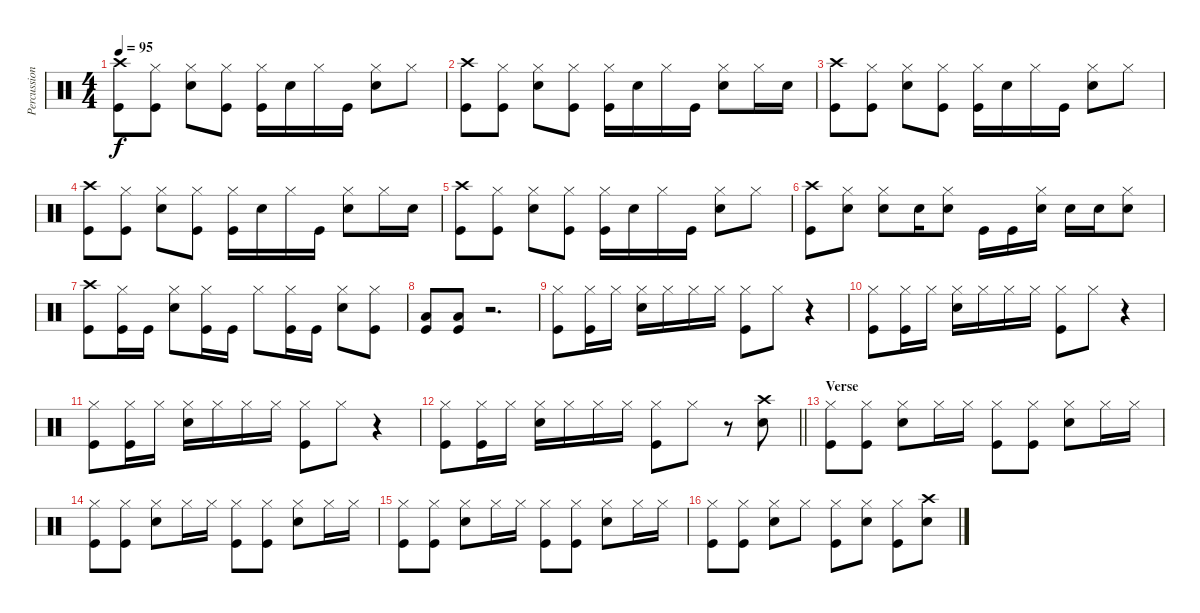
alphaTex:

\track ("Percussion" "Percussion") {instrument percussion}
\staff {score}
\articulation defaults
\ts (4 4)
\tempo 95
\clef neutral
\ks c
("Crash high (hit)" "Kick (hit)").8{dy f} ("Hi-Hat (closed)" "Kick (hit)").8 ("Hi-Hat (closed)" "Snare (hit) 2").8 ("Hi-Hat (closed)" "Kick (hit)").8 ("Hi-Hat (closed)" "Kick (hit)").16 "Snare (hit) 2".16 "Hi-Hat (closed)".16 "Kick (hit)".16 ("Hi-Hat (closed)" "Snare (hit) 2").8 "Hi-Hat (closed)".8 |
("Crash high (hit)" "Kick (hit)").8 ("Hi-Hat (closed)" "Kick (hit)").8 ("Hi-Hat (closed)" "Snare (hit) 2").8 ("Hi-Hat (closed)" "Kick (hit)").8 ("Hi-Hat (closed)" "Kick (hit)").16 "Snare (hit) 2".16 "Hi-Hat (closed)".16 "Kick (hit)".16 ("Hi-Hat (closed)" "Snare (hit) 2").8 "Hi-Hat (closed)".16 "Snare (hit) 2".16 |
("Crash high (hit)" "Kick (hit)").8 ("Hi-Hat (closed)" "Kick (hit)").8 ("Hi-Hat (closed)" "Snare (hit) 2").8 ("Hi-Hat (closed)" "Kick (hit)").8 ("Hi-Hat (closed)" "Kick (hit)").16 "Snare (hit) 2".16 "Hi-Hat (closed)".16 "Kick (hit)".16 ("Hi-Hat (closed)" "Snare (hit) 2").8 "Hi-Hat (closed)".8 |
("Crash high (hit)" "Kick (hit)").8 ("Hi-Hat (closed)" "Kick (hit)").8 ("Hi-Hat (closed)" "Snare (hit) 2").8 ("Hi-Hat (closed)" "Kick (hit)").8 ("Hi-Hat (closed)" "Kick (hit)").16 "Snare (hit) 2".16 "Hi-Hat (closed)".16 "Kick (hit)".16 ("Hi-Hat (closed)" "Snare (hit) 2").8 "Hi-Hat (closed)".16 "Snare (hit) 2".16 |
("Crash high (hit)" "Kick (hit)").8 ("Hi-Hat (closed)" "Kick (hit)").8 ("Hi-Hat (closed)" "Snare (hit) 2").8 ("Hi-Hat (closed)" "Kick (hit)").8 ("Hi-Hat (closed)" "Kick (hit)").16 "Snare (hit) 2".16 "Hi-Hat (closed)".16 "Kick (hit)".16 ("Hi-Hat (closed)" "Snare (hit) 2").8 "Hi-Hat (closed)".8 |
("Crash high (hit)" "Kick (hit)").8 ("Hi-Hat (closed)" "Snare (hit) 2").8 ("Hi-Hat (closed)" "Snare (hit) 2").8 "Snare (hit) 2".16 ("Hi-Hat (closed)" "Snare (hit) 2").8 "Kick (hit)".16 "Kick (hit)".16 ("Hi-Hat (closed)" "Electric Snare (hit)").16 "Electric Snare (hit)".16 "Snare (hit) 2".16 ("Hi-Hat (closed)" "Electric Snare (hit)").8 |
("Crash high (hit)" "Kick (hit)").8 ("Hi-Hat (closed)" "Kick (hit)").16 "Kick (hit)".16 ("Hi-Hat (closed)" "Snare (hit) 2").8 ("Hi-Hat (closed)" "Kick (hit)").16 "Kick (hit)".16 "Hi-Hat (closed)".8 ("Hi-Hat (closed)" "Kick (hit)").16 "Kick (hit)".16 ("Hi-Hat (closed)" "Snare (hit) 2").8 ("Hi-Hat (closed)" "Kick (hit)").8 |
("Low Tom (hit)" "Kick (hit)").8 ("Low Tom (hit)" "Kick (hit)").8 r.2{d} |
("Hi-Hat (closed)" "Kick (hit)").8 ("Hi-Hat (closed)" "Kick (hit)").16 "Hi-Hat (closed)".16 ("Hi-Hat (closed)" "Snare (hit) 2").16 "Hi-Hat (closed)".16 "Hi-Hat (closed)".16 "Hi-Hat (closed)".16 ("Hi-Hat (closed)" "Kick (hit)").8 "Hi-Hat (closed)".8 r.4 |
("Hi-Hat (closed)" "Kick (hit)").8 ("Hi-Hat (closed)" "Kick (hit)").16 "Hi-Hat (closed)".16 ("Hi-Hat (closed)" "Snare (hit) 2").16 "Hi-Hat (closed)".16 "Hi-Hat (closed)".16 "Hi-Hat (closed)".16 ("Hi-Hat (closed)" "Kick (hit)").8 "Hi-Hat (closed)".8 r.4 |
("Hi-Hat (closed)" "Kick (hit)").8 ("Hi-Hat (closed)" "Kick (hit)").16 "Hi-Hat (closed)".16 ("Hi-Hat (closed)" "Snare (hit) 2").16 "Hi-Hat (closed)".16 "Hi-Hat (closed)".16 "Hi-Hat (closed)".16 ("Hi-Hat (closed)" "Kick (hit)").8 "Hi-Hat (closed)".8 r.4 |
\barLineRight lightlight
("Hi-Hat (closed)" "Kick (hit)").8 ("Hi-Hat (closed)" "Kick (hit)").16 "Hi-Hat (closed)".16 ("Hi-Hat (closed)" "Snare (hit) 2").16 "Hi-Hat (closed)".16 "Hi-Hat (closed)".16 "Hi-Hat (closed)".16 ("Hi-Hat (closed)" "Kick (hit)").8 "Hi-Hat (closed)".8 r.8 ("Crash high (hit)" "Snare (hit) 2").8 |
\section ("" "Verse")
("Hi-Hat (closed)" "Kick (hit)").8 ("Hi-Hat (closed)" "Kick (hit)").8 ("Hi-Hat (closed)" "Snare (hit) 2").8 "Hi-Hat (closed)".16 "Hi-Hat (closed)".16 ("Hi-Hat (closed)" "Kick (hit)").8 ("Hi-Hat (closed)" "Kick (hit)").8 ("Hi-Hat (closed)" "Snare (hit) 2").8 "Hi-Hat (closed)".16 "Hi-Hat (closed)".16 |
("Hi-Hat (closed)" "Kick (hit)").8 ("Hi-Hat (closed)" "Kick (hit)").8 ("Hi-Hat (closed)" "Snare (hit) 2").8 "Hi-Hat (closed)".16 "Hi-Hat (closed)".16 ("Hi-Hat (closed)" "Kick (hit)").8 ("Hi-Hat (closed)" "Kick (hit)").8 ("Hi-Hat (closed)" "Snare (hit) 2").8 "Hi-Hat (closed)".16 "Hi-Hat (closed)".16 |
("Hi-Hat (closed)" "Kick (hit)").8 ("Hi-Hat (closed)" "Kick (hit)").8 ("Hi-Hat (closed)" "Snare (hit) 2").8 "Hi-Hat (closed)".16 "Hi-Hat (closed)".16 ("Hi-Hat (closed)" "Kick (hit)").8 ("Hi-Hat (closed)" "Kick (hit)").8 ("Hi-Hat (closed)" "Snare (hit) 2").8 "Hi-Hat (closed)".16 "Hi-Hat (closed)".16 |
("Hi-Hat (closed)" "Kick (hit)").8 ("Hi-Hat (closed)" "Kick (hit)").8 ("Hi-Hat (closed)" "Snare (hit) 2").8 "Hi-Hat (closed)".8 ("Hi-Hat (closed)" "Kick (hit)").8 ("Hi-Hat (closed)" "Snare (hit) 2").8 ("Hi-Hat (closed)" "Kick (hit)").8 ("Crash high (hit)" "Snare (hit) 2").8
